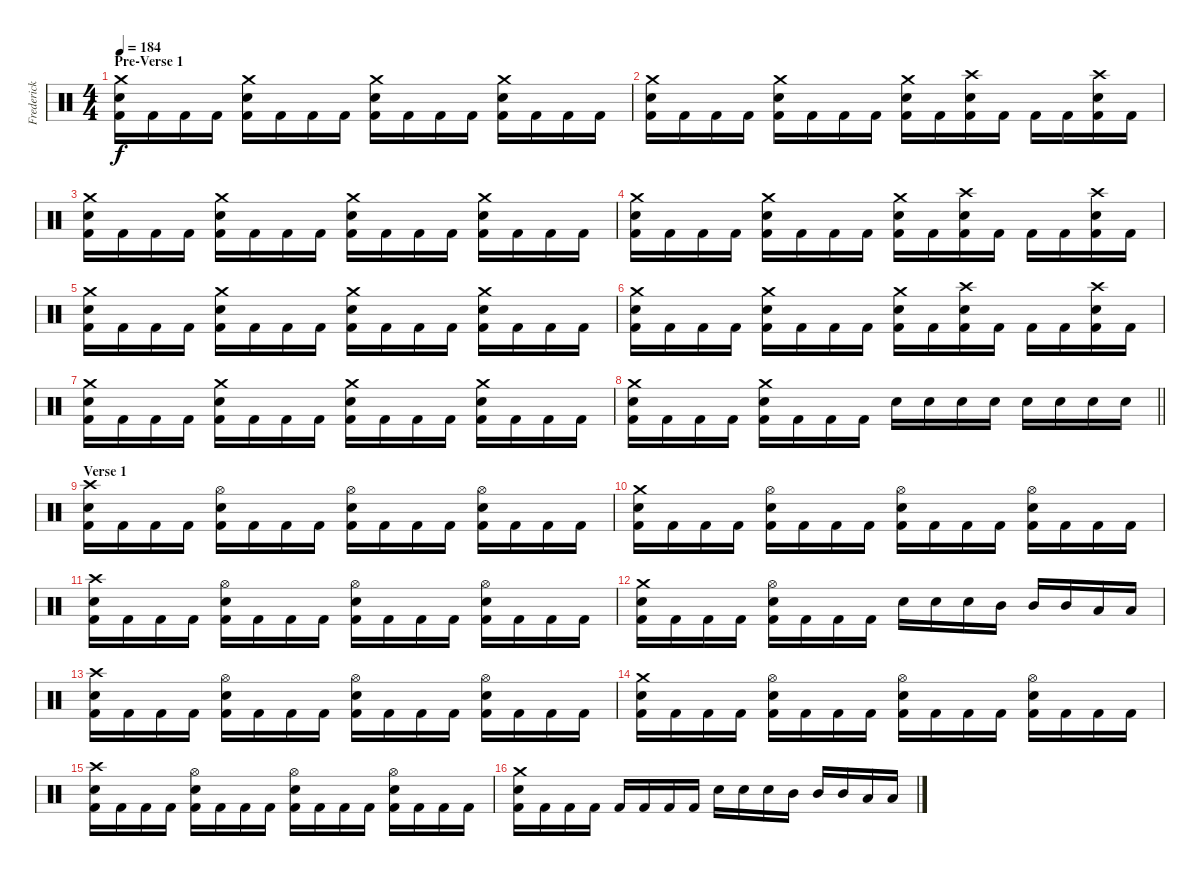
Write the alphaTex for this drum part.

\track ("Frederick Ehmke" "Frederick ") {instrument percussion}
\staff {score}
\articulation defaults
\ts (4 4)
\section ("" "Pre-Verse 1")
\tempo 184
\clef neutral
\ks c
("Electric Snare (hit)" "Kick (hit) 2" "Crash medium (hit)").16{dy f} "Kick (hit) 2".16 "Kick (hit) 2".16 "Kick (hit) 2".16 ("Electric Snare (hit)" "Kick (hit) 2" "Crash medium (hit)").16 "Kick (hit) 2".16 "Kick (hit) 2".16 "Kick (hit) 2".16 ("Electric Snare (hit)" "Kick (hit) 2" "Crash medium (hit)").16 "Kick (hit) 2".16 "Kick (hit) 2".16 "Kick (hit) 2".16 ("Electric Snare (hit)" "Kick (hit) 2" "Crash medium (hit)").16 "Kick (hit) 2".16 "Kick (hit) 2".16 "Kick (hit) 2".16 |
("Electric Snare (hit)" "Kick (hit) 2" "Crash medium (hit)").16 "Kick (hit) 2".16 "Kick (hit) 2".16 "Kick (hit) 2".16 ("Electric Snare (hit)" "Kick (hit) 2" "Crash medium (hit)").16 "Kick (hit) 2".16 "Kick (hit) 2".16 "Kick (hit) 2".16 ("Electric Snare (hit)" "Kick (hit) 2" "Crash medium (hit)").16 "Kick (hit) 2".16 ("Electric Snare (hit)" "Kick (hit) 2" "Crash high (hit)").16 "Kick (hit) 2".16 "Kick (hit) 2".16 "Kick (hit) 2".16 ("Electric Snare (hit)" "Kick (hit) 2" "Crash high (hit)").16 "Kick (hit) 2".16 |
("Electric Snare (hit)" "Kick (hit) 2" "Crash medium (hit)").16 "Kick (hit) 2".16 "Kick (hit) 2".16 "Kick (hit) 2".16 ("Electric Snare (hit)" "Kick (hit) 2" "Crash medium (hit)").16 "Kick (hit) 2".16 "Kick (hit) 2".16 "Kick (hit) 2".16 ("Electric Snare (hit)" "Kick (hit) 2" "Crash medium (hit)").16 "Kick (hit) 2".16 "Kick (hit) 2".16 "Kick (hit) 2".16 ("Electric Snare (hit)" "Kick (hit) 2" "Crash medium (hit)").16 "Kick (hit) 2".16 "Kick (hit) 2".16 "Kick (hit) 2".16 |
("Electric Snare (hit)" "Kick (hit) 2" "Crash medium (hit)").16 "Kick (hit) 2".16 "Kick (hit) 2".16 "Kick (hit) 2".16 ("Electric Snare (hit)" "Kick (hit) 2" "Crash medium (hit)").16 "Kick (hit) 2".16 "Kick (hit) 2".16 "Kick (hit) 2".16 ("Electric Snare (hit)" "Kick (hit) 2" "Crash medium (hit)").16 "Kick (hit) 2".16 ("Electric Snare (hit)" "Kick (hit) 2" "Crash high (hit)").16 "Kick (hit) 2".16 "Kick (hit) 2".16 "Kick (hit) 2".16 ("Electric Snare (hit)" "Kick (hit) 2" "Crash high (hit)").16 "Kick (hit) 2".16 |
("Electric Snare (hit)" "Kick (hit) 2" "Crash medium (hit)").16 "Kick (hit) 2".16 "Kick (hit) 2".16 "Kick (hit) 2".16 ("Electric Snare (hit)" "Kick (hit) 2" "Crash medium (hit)").16 "Kick (hit) 2".16 "Kick (hit) 2".16 "Kick (hit) 2".16 ("Electric Snare (hit)" "Kick (hit) 2" "Crash medium (hit)").16 "Kick (hit) 2".16 "Kick (hit) 2".16 "Kick (hit) 2".16 ("Electric Snare (hit)" "Kick (hit) 2" "Crash medium (hit)").16 "Kick (hit) 2".16 "Kick (hit) 2".16 "Kick (hit) 2".16 |
("Electric Snare (hit)" "Kick (hit) 2" "Crash medium (hit)").16 "Kick (hit) 2".16 "Kick (hit) 2".16 "Kick (hit) 2".16 ("Electric Snare (hit)" "Kick (hit) 2" "Crash medium (hit)").16 "Kick (hit) 2".16 "Kick (hit) 2".16 "Kick (hit) 2".16 ("Electric Snare (hit)" "Kick (hit) 2" "Crash medium (hit)").16 "Kick (hit) 2".16 ("Electric Snare (hit)" "Kick (hit) 2" "Crash high (hit)").16 "Kick (hit) 2".16 "Kick (hit) 2".16 "Kick (hit) 2".16 ("Electric Snare (hit)" "Kick (hit) 2" "Crash high (hit)").16 "Kick (hit) 2".16 |
("Electric Snare (hit)" "Kick (hit) 2" "Crash medium (hit)").16 "Kick (hit) 2".16 "Kick (hit) 2".16 "Kick (hit) 2".16 ("Electric Snare (hit)" "Kick (hit) 2" "Crash medium (hit)").16 "Kick (hit) 2".16 "Kick (hit) 2".16 "Kick (hit) 2".16 ("Electric Snare (hit)" "Kick (hit) 2" "Crash medium (hit)").16 "Kick (hit) 2".16 "Kick (hit) 2".16 "Kick (hit) 2".16 ("Electric Snare (hit)" "Kick (hit) 2" "Crash medium (hit)").16 "Kick (hit) 2".16 "Kick (hit) 2".16 "Kick (hit) 2".16 |
\barLineRight lightlight
("Electric Snare (hit)" "Kick (hit) 2" "Crash medium (hit)").16 "Kick (hit) 2".16 "Kick (hit) 2".16 "Kick (hit) 2".16 ("Electric Snare (hit)" "Kick (hit) 2" "Crash medium (hit)").16 "Kick (hit) 2".16 "Kick (hit) 2".16 "Kick (hit) 2".16 "Electric Snare (hit)".16 "Electric Snare (hit)".16 "Electric Snare (hit)".16 "Electric Snare (hit)".16 "Electric Snare (hit)".16 "Electric Snare (hit)".16 "Electric Snare (hit)".16 "Electric Snare (hit)".16 |
\section ("" "Verse 1")
("Electric Snare (hit)" "Kick (hit) 2" "Crash high (hit)").16 "Kick (hit) 2".16 "Kick (hit) 2".16 "Kick (hit) 2".16 ("Electric Snare (hit)" "Kick (hit) 2" "Hi-Hat (open)").16 "Kick (hit) 2".16 "Kick (hit) 2".16 "Kick (hit) 2".16 ("Electric Snare (hit)" "Kick (hit) 2" "Hi-Hat (open)").16 "Kick (hit) 2".16 "Kick (hit) 2".16 "Kick (hit) 2".16 ("Electric Snare (hit)" "Kick (hit) 2" "Hi-Hat (open)").16 "Kick (hit) 2".16 "Kick (hit) 2".16 "Kick (hit) 2".16 |
("Electric Snare (hit)" "Kick (hit) 2" "Crash medium (hit)").16 "Kick (hit) 2".16 "Kick (hit) 2".16 "Kick (hit) 2".16 ("Electric Snare (hit)" "Kick (hit) 2" "Hi-Hat (open)").16 "Kick (hit) 2".16 "Kick (hit) 2".16 "Kick (hit) 2".16 ("Electric Snare (hit)" "Kick (hit) 2" "Hi-Hat (open)").16 "Kick (hit) 2".16 "Kick (hit) 2".16 "Kick (hit) 2".16 ("Electric Snare (hit)" "Kick (hit) 2" "Hi-Hat (open)").16 "Kick (hit) 2".16 "Kick (hit) 2".16 "Kick (hit) 2".16 |
("Electric Snare (hit)" "Kick (hit) 2" "Crash high (hit)").16 "Kick (hit) 2".16 "Kick (hit) 2".16 "Kick (hit) 2".16 ("Electric Snare (hit)" "Kick (hit) 2" "Hi-Hat (open)").16 "Kick (hit) 2".16 "Kick (hit) 2".16 "Kick (hit) 2".16 ("Electric Snare (hit)" "Kick (hit) 2" "Hi-Hat (open)").16 "Kick (hit) 2".16 "Kick (hit) 2".16 "Kick (hit) 2".16 ("Electric Snare (hit)" "Kick (hit) 2" "Hi-Hat (open)").16 "Kick (hit) 2".16 "Kick (hit) 2".16 "Kick (hit) 2".16 |
("Electric Snare (hit)" "Kick (hit) 2" "Crash medium (hit)").16 "Kick (hit) 2".16 "Kick (hit) 2".16 "Kick (hit) 2".16 ("Electric Snare (hit)" "Kick (hit) 2" "Hi-Hat (open)").16 "Kick (hit) 2".16 "Kick (hit) 2".16 "Kick (hit) 2".16 "Electric Snare (hit)".16 "Electric Snare (hit)".16 "Electric Snare (hit)".16 "Mid Tom (hit)".16 "Mid Tom (hit)".16 "Mid Tom (hit)".16 "Low Tom (hit)".16 "Low Tom (hit)".16 |
("Electric Snare (hit)" "Kick (hit) 2" "Crash high (hit)").16 "Kick (hit) 2".16 "Kick (hit) 2".16 "Kick (hit) 2".16 ("Electric Snare (hit)" "Kick (hit) 2" "Hi-Hat (open)").16 "Kick (hit) 2".16 "Kick (hit) 2".16 "Kick (hit) 2".16 ("Electric Snare (hit)" "Kick (hit) 2" "Hi-Hat (open)").16 "Kick (hit) 2".16 "Kick (hit) 2".16 "Kick (hit) 2".16 ("Electric Snare (hit)" "Kick (hit) 2" "Hi-Hat (open)").16 "Kick (hit) 2".16 "Kick (hit) 2".16 "Kick (hit) 2".16 |
("Electric Snare (hit)" "Kick (hit) 2" "Crash medium (hit)").16 "Kick (hit) 2".16 "Kick (hit) 2".16 "Kick (hit) 2".16 ("Electric Snare (hit)" "Kick (hit) 2" "Hi-Hat (open)").16 "Kick (hit) 2".16 "Kick (hit) 2".16 "Kick (hit) 2".16 ("Electric Snare (hit)" "Kick (hit) 2" "Hi-Hat (open)").16 "Kick (hit) 2".16 "Kick (hit) 2".16 "Kick (hit) 2".16 ("Electric Snare (hit)" "Kick (hit) 2" "Hi-Hat (open)").16 "Kick (hit) 2".16 "Kick (hit) 2".16 "Kick (hit) 2".16 |
("Electric Snare (hit)" "Kick (hit) 2" "Crash high (hit)").16 "Kick (hit) 2".16 "Kick (hit) 2".16 "Kick (hit) 2".16 ("Electric Snare (hit)" "Kick (hit) 2" "Hi-Hat (open)").16 "Kick (hit) 2".16 "Kick (hit) 2".16 "Kick (hit) 2".16 ("Electric Snare (hit)" "Kick (hit) 2" "Hi-Hat (open)").16 "Kick (hit) 2".16 "Kick (hit) 2".16 "Kick (hit) 2".16 ("Electric Snare (hit)" "Kick (hit) 2" "Hi-Hat (open)").16 "Kick (hit) 2".16 "Kick (hit) 2".16 "Kick (hit) 2".16 |
("Electric Snare (hit)" "Kick (hit) 2" "Crash medium (hit)").16 "Kick (hit) 2".16 "Kick (hit) 2".16 "Kick (hit) 2".16 "Kick (hit) 2".16 "Kick (hit) 2".16 "Kick (hit) 2".16 "Kick (hit) 2".16 "Electric Snare (hit)".16 "Electric Snare (hit)".16 "Electric Snare (hit)".16 "Mid Tom (hit)".16 "Mid Tom (hit)".16 "Mid Tom (hit)".16 "Low Tom (hit)".16 "Low Tom (hit)".16
